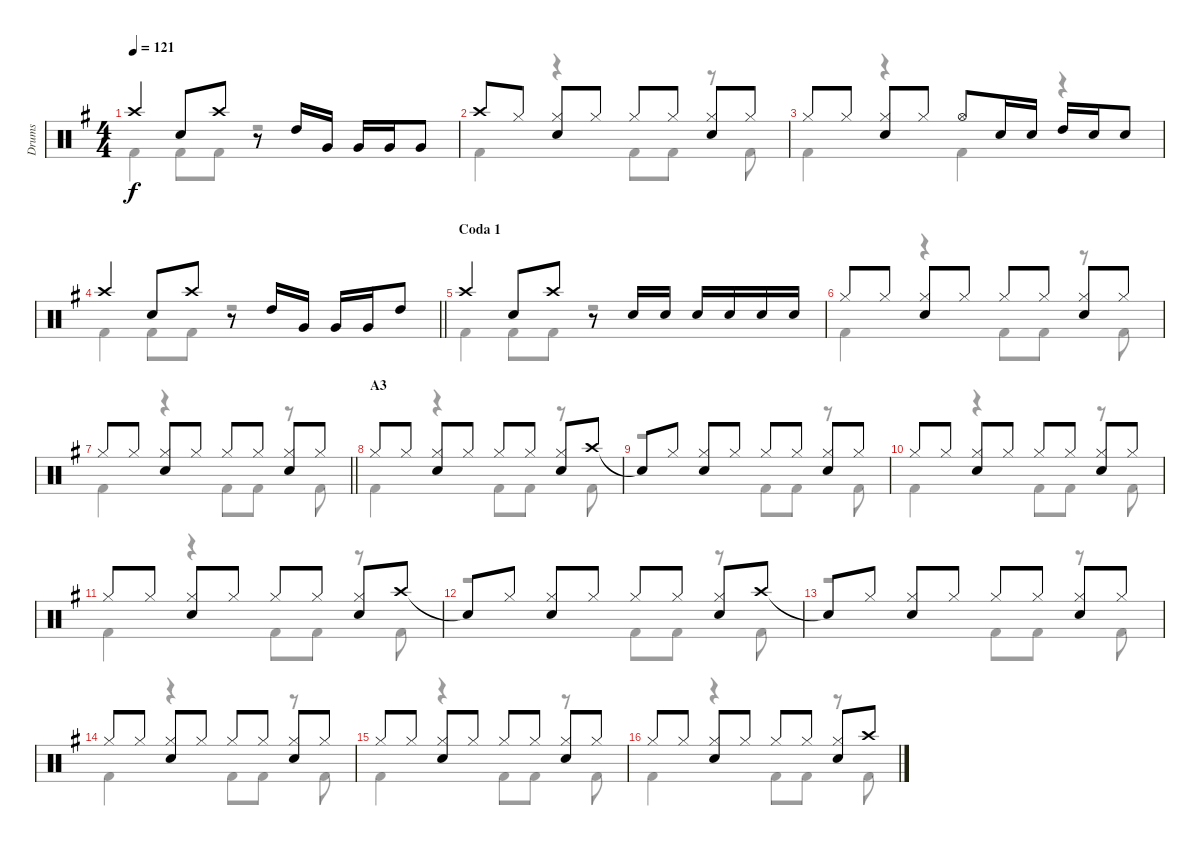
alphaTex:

\track ("Drums" "Drums") {instrument percussion}
\staff {score}
\articulation defaults
\voice
\ts (4 4)
\tempo 121
\clef neutral
\ks g "Crash high (hit)".4{dy f} "Snare (hit) 2".8 "Crash high (hit)".8
r.8 "High Tom (hit)".16 "Very Low Tom (hit)".16 "Very Low Tom (hit)".16 "Very Low Tom (hit)".16 "Very Low Tom (hit)".8 |
"Crash high (hit)".8 "Hi-Hat (closed)".8 ("Hi-Hat (closed)" "Snare (hit) 2").8 "Hi-Hat (closed)".8 "Hi-Hat (closed)".8 "Hi-Hat (closed)".8 ("Hi-Hat (closed)" "Snare (hit) 2").8 "Hi-Hat (closed)".8 |
"Hi-Hat (closed)".8 "Hi-Hat (closed)".8 ("Hi-Hat (closed)" "Snare (hit) 2").8 "Hi-Hat (closed)".8 "Hi-Hat (open)".8 "Snare (hit) 2".16 "Snare (hit) 2".16 "High Tom (hit)".16 "Snare (hit) 2".16 "Snare (hit) 2".8 |
\barLineRight lightlight "Crash high (hit)".4 "Snare (hit) 2".8 "Crash high (hit)".8
r.8 "High Tom (hit)".16 "Very Low Tom (hit)".16 "Very Low Tom (hit)".16 "Very Low Tom (hit)".16 "High Tom (hit)".8 |
\section ("" "Coda 1")
"Crash high (hit)".4 "Snare (hit) 2".8 "Crash high (hit)".8 r.8 "Snare (hit) 2".16 "Snare (hit) 2".16 "Snare (hit) 2".16 "Snare (hit) 2".16 "Snare (hit) 2".16 "Snare (hit) 2".16 |
"Hi-Hat (closed)".8 "Hi-Hat (closed)".8 ("Hi-Hat (closed)" "Snare (hit) 2").8 "Hi-Hat (closed)".8 "Hi-Hat (closed)".8 "Hi-Hat (closed)".8 ("Hi-Hat (closed)" "Snare (hit) 2").8 "Hi-Hat (closed)".8 |
\barLineRight lightlight "Hi-Hat (closed)".8 "Hi-Hat (closed)".8
("Hi-Hat (closed)" "Snare (hit) 2").8 "Hi-Hat (closed)".8 "Hi-Hat (closed)".8 "Hi-Hat (closed)".8 ("Hi-Hat (closed)" "Snare (hit) 2").8 "Hi-Hat (closed)".8 |
\section ("" "A3")
"Hi-Hat (closed)".8 "Hi-Hat (closed)".8 ("Hi-Hat (closed)" "Snare (hit) 2").8 "Hi-Hat (closed)".8 "Hi-Hat (closed)".8 "Hi-Hat (closed)".8 ("Hi-Hat (closed)" "Snare (hit) 2").8 "Crash high (hit)".8 |
"Snare (hit)"{t}.8 "Hi-Hat (closed)".8 ("Hi-Hat (closed)" "Snare (hit) 2").8 "Hi-Hat (closed)".8 "Hi-Hat (closed)".8 "Hi-Hat (closed)".8 ("Hi-Hat (closed)" "Snare (hit) 2").8 "Hi-Hat (closed)".8 |
"Hi-Hat (closed)".8 "Hi-Hat (closed)".8 ("Hi-Hat (closed)" "Snare (hit) 2").8 "Hi-Hat (closed)".8 "Hi-Hat (closed)".8 "Hi-Hat (closed)".8 ("Hi-Hat (closed)" "Snare (hit) 2").8 "Hi-Hat (closed)".8 |
"Hi-Hat (closed)".8 "Hi-Hat (closed)".8 ("Hi-Hat (closed)" "Snare (hit) 2").8 "Hi-Hat (closed)".8 "Hi-Hat (closed)".8 "Hi-Hat (closed)".8 ("Hi-Hat (closed)" "Snare (hit) 2").8 "Crash high (hit)".8 |
"Snare (hit)"{t}.8 "Hi-Hat (closed)".8 ("Hi-Hat (closed)" "Snare (hit) 2").8 "Hi-Hat (closed)".8 "Hi-Hat (closed)".8 "Hi-Hat (closed)".8 ("Hi-Hat (closed)" "Snare (hit) 2").8 "Crash high (hit)".8 |
"Snare (hit)"{t}.8 "Hi-Hat (closed)".8 ("Hi-Hat (closed)" "Snare (hit) 2").8 "Hi-Hat (closed)".8 "Hi-Hat (closed)".8 "Hi-Hat (closed)".8 ("Hi-Hat (closed)" "Snare (hit) 2").8 "Hi-Hat (closed)".8 |
"Hi-Hat (closed)".8 "Hi-Hat (closed)".8 ("Hi-Hat (closed)" "Snare (hit) 2").8 "Hi-Hat (closed)".8 "Hi-Hat (closed)".8 "Hi-Hat (closed)".8 ("Hi-Hat (closed)" "Snare (hit) 2").8 "Hi-Hat (closed)".8 |
"Hi-Hat (closed)".8 "Hi-Hat (closed)".8 ("Hi-Hat (closed)" "Snare (hit) 2").8 "Hi-Hat (closed)".8 "Hi-Hat (closed)".8 "Hi-Hat (closed)".8 ("Hi-Hat (closed)" "Snare (hit) 2").8 "Hi-Hat (closed)".8 |
"Hi-Hat (closed)".8 "Hi-Hat (closed)".8 ("Hi-Hat (closed)" "Snare (hit) 2").8 "Hi-Hat (closed)".8 "Hi-Hat (closed)".8 "Hi-Hat (closed)".8 ("Hi-Hat (closed)" "Snare (hit) 2").8 "Crash high (hit)".8
\voice
\clef neutral
\ottava regular
\simile none
\ks g "Kick (hit) 2".4{dy f} "Kick (hit) 2".8 "Kick (hit) 2".8
r.2 |
"Kick (hit) 2".4 r.4 "Kick (hit) 2".8 "Kick (hit) 2".8 r.8 "Kick (hit) 2".8 |
"Kick (hit) 2".4 r.4 "Kick (hit) 2".4 r.4 |
\barLineRight lightlight "Kick (hit) 2".4 "Kick (hit) 2".8 "Kick (hit) 2".8
r.2 |
"Kick (hit) 2".4 "Kick (hit) 2".8 "Kick (hit) 2".8 r.2 |
"Kick (hit) 2".4 r.4 "Kick (hit) 2".8 "Kick (hit) 2".8 r.8 "Kick (hit) 2".8 |
\barLineRight lightlight "Kick (hit) 2".4
r.4 "Kick (hit) 2".8 "Kick (hit) 2".8 r.8 "Kick (hit) 2".8 |
"Kick (hit) 2".4 r.4 "Kick (hit) 2".8 "Kick (hit) 2".8 r.8 "Kick (hit) 2".8 |
r.2 "Kick (hit) 2".8 "Kick (hit) 2".8 r.8 "Kick (hit) 2".8 |
"Kick (hit) 2".4 r.4 "Kick (hit) 2".8 "Kick (hit) 2".8 r.8 "Kick (hit) 2".8 |
"Kick (hit) 2".4 r.4 "Kick (hit) 2".8 "Kick (hit) 2".8 r.8 "Kick (hit) 2".8 |
r.2 "Kick (hit) 2".8 "Kick (hit) 2".8 r.8 "Kick (hit) 2".8 |
r.2 "Kick (hit) 2".8 "Kick (hit) 2".8 r.8 "Kick (hit) 2".8 |
"Kick (hit) 2".4 r.4 "Kick (hit) 2".8 "Kick (hit) 2".8 r.8 "Kick (hit) 2".8 |
"Kick (hit) 2".4 r.4 "Kick (hit) 2".8 "Kick (hit) 2".8 r.8 "Kick (hit) 2".8 |
"Kick (hit) 2".4 r.4 "Kick (hit) 2".8 "Kick (hit) 2".8 r.8 "Kick (hit) 2".8
